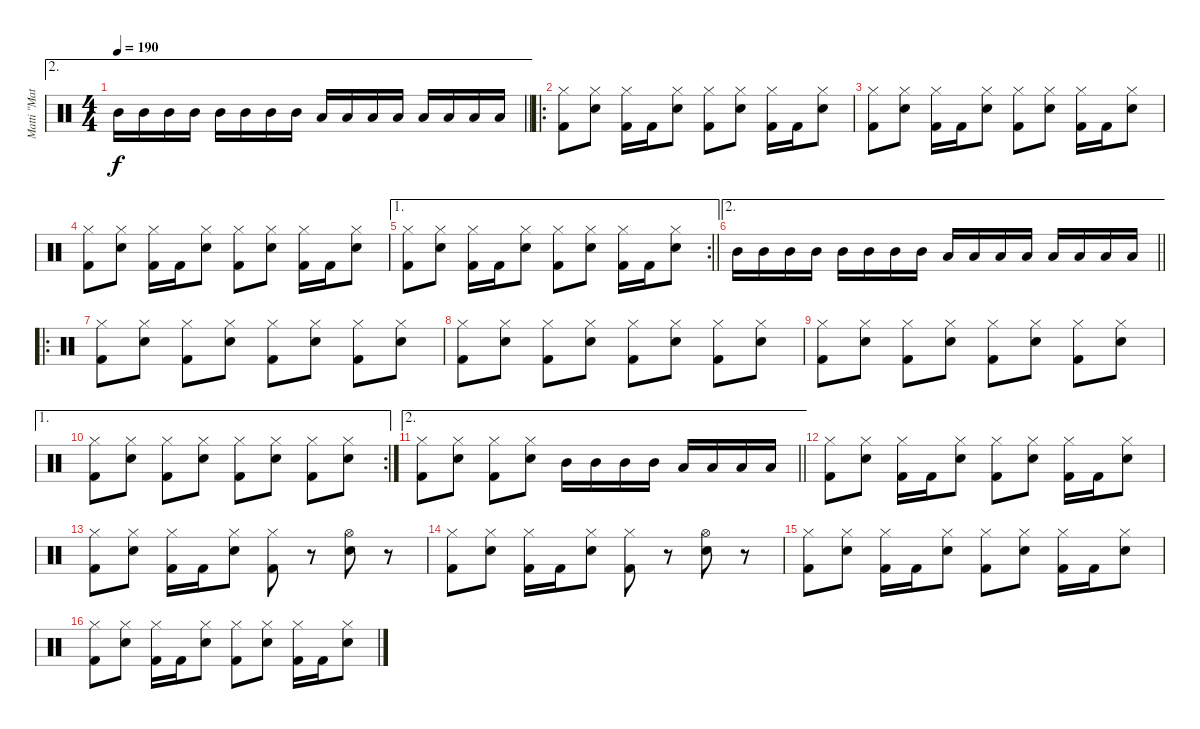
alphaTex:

\track ("Matti \"Matson\" Johansson" "Matti \"Mat") {instrument percussion}
\staff {score}
\articulation defaults
\ae 2
\ts (4 4)
\tempo 190
\clef neutral
\barLineRight lightlight
\ks c "Mid Tom (hit)".16{dy f} "Mid Tom (hit)".16 "Mid Tom (hit)".16 "Mid Tom (hit)".16 "Mid Tom (hit)".16 "Mid Tom (hit)".16 "Mid Tom (hit)".16 "Mid Tom (hit)".16 "Low Tom (hit)".16 "Low Tom (hit)".16 "Low Tom (hit)".16 "Low Tom (hit)".16 "Low Tom (hit)".16 "Low Tom (hit)".16 "Low Tom (hit)".16 "Low Tom (hit)".16
|
\ro
\section ("" "")
("Hi-Hat (closed)" "Kick (hit) 2").8 ("Hi-Hat (closed)" "Snare (hit) 2").8 ("Hi-Hat (closed)" "Kick (hit) 2").16 "Kick (hit) 2".16 ("Hi-Hat (closed)" "Snare (hit) 2").8 ("Hi-Hat (closed)" "Kick (hit) 2").8 ("Hi-Hat (closed)" "Snare (hit) 2").8 ("Hi-Hat (closed)" "Kick (hit) 2").16 "Kick (hit) 2".16 ("Hi-Hat (closed)" "Snare (hit) 2").8 |
("Hi-Hat (closed)" "Kick (hit) 2").8 ("Hi-Hat (closed)" "Snare (hit) 2").8 ("Hi-Hat (closed)" "Kick (hit) 2").16 "Kick (hit) 2".16 ("Hi-Hat (closed)" "Snare (hit) 2").8 ("Hi-Hat (closed)" "Kick (hit) 2").8 ("Hi-Hat (closed)" "Snare (hit) 2").8 ("Hi-Hat (closed)" "Kick (hit) 2").16 "Kick (hit) 2".16 ("Hi-Hat (closed)" "Snare (hit) 2").8 |
("Hi-Hat (closed)" "Kick (hit) 2").8 ("Hi-Hat (closed)" "Snare (hit) 2").8 ("Hi-Hat (closed)" "Kick (hit) 2").16 "Kick (hit) 2".16 ("Hi-Hat (closed)" "Snare (hit) 2").8 ("Hi-Hat (closed)" "Kick (hit) 2").8 ("Hi-Hat (closed)" "Snare (hit) 2").8 ("Hi-Hat (closed)" "Kick (hit) 2").16 "Kick (hit) 2".16 ("Hi-Hat (closed)" "Snare (hit) 2").8 |
\ae 1
\rc 2
\barLineRight lightlight
("Hi-Hat (closed)" "Kick (hit) 2").8 ("Hi-Hat (closed)" "Snare (hit) 2").8 ("Hi-Hat (closed)" "Kick (hit) 2").16 "Kick (hit) 2".16 ("Hi-Hat (closed)" "Snare (hit) 2").8 ("Hi-Hat (closed)" "Kick (hit) 2").8 ("Hi-Hat (closed)" "Snare (hit) 2").8 ("Hi-Hat (closed)" "Kick (hit) 2").16 "Kick (hit) 2".16 ("Hi-Hat (closed)" "Snare (hit) 2").8 |
\ae 2
\barLineRight lightlight "Mid Tom (hit)".16 "Mid Tom (hit)".16 "Mid Tom (hit)".16 "Mid Tom (hit)".16 "Mid Tom (hit)".16 "Mid Tom (hit)".16 "Mid Tom (hit)".16 "Mid Tom (hit)".16 "Low Tom (hit)".16 "Low Tom (hit)".16 "Low Tom (hit)".16 "Low Tom (hit)".16 "Low Tom (hit)".16 "Low Tom (hit)".16 "Low Tom (hit)".16 "Low Tom (hit)".16
|
\ro
\section ("" "")
("Hi-Hat (closed)" "Kick (hit) 2").8 ("Hi-Hat (closed)" "Snare (hit) 2").8 ("Hi-Hat (closed)" "Kick (hit) 2").8 ("Hi-Hat (closed)" "Snare (hit) 2").8 ("Hi-Hat (closed)" "Kick (hit) 2").8 ("Hi-Hat (closed)" "Snare (hit) 2").8 ("Hi-Hat (closed)" "Kick (hit) 2").8 ("Hi-Hat (closed)" "Snare (hit) 2").8 |
("Hi-Hat (closed)" "Kick (hit) 2").8 ("Hi-Hat (closed)" "Snare (hit) 2").8 ("Hi-Hat (closed)" "Kick (hit) 2").8 ("Hi-Hat (closed)" "Snare (hit) 2").8 ("Hi-Hat (closed)" "Kick (hit) 2").8 ("Hi-Hat (closed)" "Snare (hit) 2").8 ("Hi-Hat (closed)" "Kick (hit) 2").8 ("Hi-Hat (closed)" "Snare (hit) 2").8 |
("Hi-Hat (closed)" "Kick (hit) 2").8 ("Hi-Hat (closed)" "Snare (hit) 2").8 ("Hi-Hat (closed)" "Kick (hit) 2").8 ("Hi-Hat (closed)" "Snare (hit) 2").8 ("Hi-Hat (closed)" "Kick (hit) 2").8 ("Hi-Hat (closed)" "Snare (hit) 2").8 ("Hi-Hat (closed)" "Kick (hit) 2").8 ("Hi-Hat (closed)" "Snare (hit) 2").8 |
\ae 1
\rc 2
("Hi-Hat (closed)" "Kick (hit) 2").8 ("Hi-Hat (closed)" "Snare (hit) 2").8 ("Hi-Hat (closed)" "Kick (hit) 2").8 ("Hi-Hat (closed)" "Snare (hit) 2").8 ("Hi-Hat (closed)" "Kick (hit) 2").8 ("Hi-Hat (closed)" "Snare (hit) 2").8 ("Hi-Hat (closed)" "Kick (hit) 2").8 ("Hi-Hat (closed)" "Snare (hit) 2").8 |
\ae 2
\barLineRight lightlight
("Hi-Hat (closed)" "Kick (hit) 2").8 ("Hi-Hat (closed)" "Snare (hit) 2").8 ("Hi-Hat (closed)" "Kick (hit) 2").8 ("Hi-Hat (closed)" "Snare (hit) 2").8 "Mid Tom (hit)".16 "Mid Tom (hit)".16 "Mid Tom (hit)".16 "Mid Tom (hit)".16 "Low Tom (hit)".16 "Low Tom (hit)".16 "Low Tom (hit)".16 "Low Tom (hit)".16 |
\section ("" "")
("Hi-Hat (closed)" "Kick (hit) 2").8 ("Hi-Hat (closed)" "Snare (hit) 2").8 ("Hi-Hat (closed)" "Kick (hit) 2").16 "Kick (hit) 2".16 ("Hi-Hat (closed)" "Snare (hit) 2").8 ("Hi-Hat (closed)" "Kick (hit) 2").8 ("Hi-Hat (closed)" "Snare (hit) 2").8 ("Hi-Hat (closed)" "Kick (hit) 2").16 "Kick (hit) 2".16 ("Hi-Hat (closed)" "Snare (hit) 2").8 |
("Hi-Hat (closed)" "Kick (hit) 2").8 ("Hi-Hat (closed)" "Snare (hit) 2").8 ("Hi-Hat (closed)" "Kick (hit) 2").16 "Kick (hit) 2".16 ("Hi-Hat (closed)" "Snare (hit) 2").8 ("Hi-Hat (closed)" "Kick (hit) 2").8 r.8 ("Hi-Hat (open)" "Snare (hit) 2").8 r.8 |
("Hi-Hat (closed)" "Kick (hit) 2").8 ("Hi-Hat (closed)" "Snare (hit) 2").8 ("Hi-Hat (closed)" "Kick (hit) 2").16 "Kick (hit) 2".16 ("Hi-Hat (closed)" "Snare (hit) 2").8 ("Hi-Hat (closed)" "Kick (hit) 2").8 r.8 ("Hi-Hat (open)" "Snare (hit) 2").8 r.8 |
("Hi-Hat (closed)" "Kick (hit) 2").8 ("Hi-Hat (closed)" "Snare (hit) 2").8 ("Hi-Hat (closed)" "Kick (hit) 2").16 "Kick (hit) 2".16 ("Hi-Hat (closed)" "Snare (hit) 2").8 ("Hi-Hat (closed)" "Kick (hit) 2").8 ("Hi-Hat (closed)" "Snare (hit) 2").8 ("Hi-Hat (closed)" "Kick (hit) 2").16 "Kick (hit) 2".16 ("Hi-Hat (closed)" "Snare (hit) 2").8 |
("Hi-Hat (closed)" "Kick (hit) 2").8 ("Hi-Hat (closed)" "Snare (hit) 2").8 ("Hi-Hat (closed)" "Kick (hit) 2").16 "Kick (hit) 2".16 ("Hi-Hat (closed)" "Snare (hit) 2").8 ("Hi-Hat (closed)" "Kick (hit) 2").8 ("Hi-Hat (closed)" "Snare (hit) 2").8 ("Hi-Hat (closed)" "Kick (hit) 2").16 "Kick (hit) 2".16 ("Hi-Hat (closed)" "Snare (hit) 2").8
